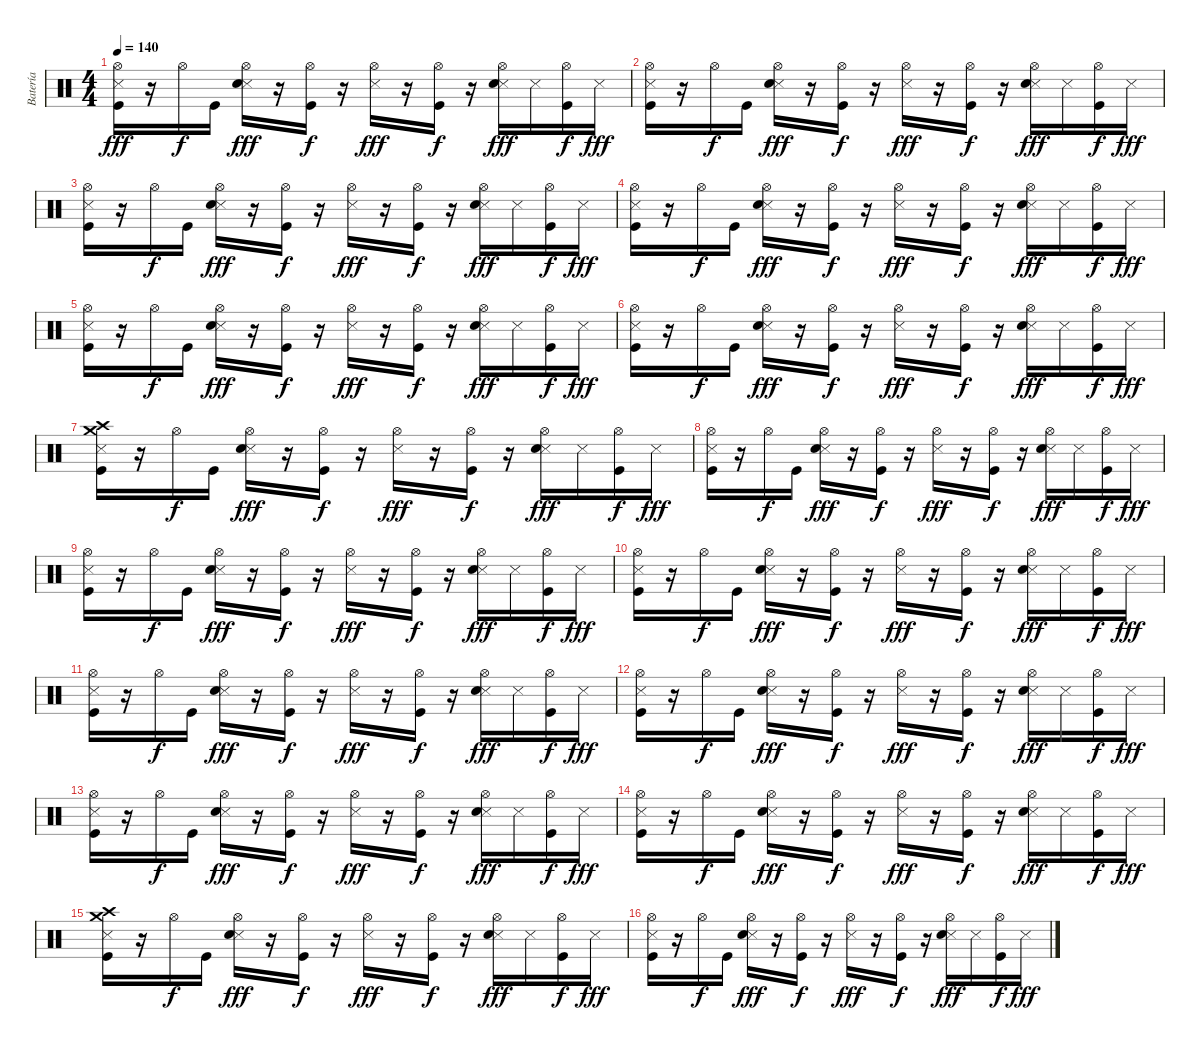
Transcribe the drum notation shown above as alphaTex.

\track ("Batería" "Batería") {instrument percussion}
\staff {score}
\articulation defaults
\ts (4 4)
\tempo 140
\clef neutral
\ks c
("Metronome (hit)" "Hi-Hat (open)" "Kick (hit)").16{dy fff} r.16 "Hi-Hat (open)".16{dy f} "Kick (hit)".16 ("Metronome (hit)" "Hi-Hat (open)" "Snare (hit) 2").16{dy fff} r.16 ("Hi-Hat (open)" "Kick (hit)").16{dy f} r.16 ("Metronome (hit)" "Hi-Hat (open)").16{dy fff} r.16 ("Hi-Hat (open)" "Kick (hit)").16{dy f} r.16 ("Metronome (hit)" "Hi-Hat (open)" "Snare (hit) 2").16{dy fff} "Metronome (hit)".16 ("Hi-Hat (open)" "Kick (hit)").16{dy f} "Metronome (hit)".16{dy fff} |
("Metronome (hit)" "Hi-Hat (open)" "Kick (hit)").16 r.16 "Hi-Hat (open)".16{dy f} "Kick (hit)".16 ("Metronome (hit)" "Hi-Hat (open)" "Snare (hit) 2").16{dy fff} r.16 ("Hi-Hat (open)" "Kick (hit)").16{dy f} r.16 ("Metronome (hit)" "Hi-Hat (open)").16{dy fff} r.16 ("Hi-Hat (open)" "Kick (hit)").16{dy f} r.16 ("Metronome (hit)" "Hi-Hat (open)" "Snare (hit) 2").16{dy fff} "Metronome (hit)".16 ("Hi-Hat (open)" "Kick (hit)").16{dy f} "Metronome (hit)".16{dy fff} |
("Metronome (hit)" "Hi-Hat (open)" "Kick (hit)").16 r.16 "Hi-Hat (open)".16{dy f} "Kick (hit)".16 ("Metronome (hit)" "Hi-Hat (open)" "Snare (hit) 2").16{dy fff} r.16 ("Hi-Hat (open)" "Kick (hit)").16{dy f} r.16 ("Metronome (hit)" "Hi-Hat (open)").16{dy fff} r.16 ("Hi-Hat (open)" "Kick (hit)").16{dy f} r.16 ("Metronome (hit)" "Hi-Hat (open)" "Snare (hit) 2").16{dy fff} "Metronome (hit)".16 ("Hi-Hat (open)" "Kick (hit)").16{dy f} "Metronome (hit)".16{dy fff} |
("Metronome (hit)" "Hi-Hat (open)" "Kick (hit)").16 r.16 "Hi-Hat (open)".16{dy f} "Kick (hit)".16 ("Metronome (hit)" "Hi-Hat (open)" "Snare (hit) 2").16{dy fff} r.16 ("Hi-Hat (open)" "Kick (hit)").16{dy f} r.16 ("Metronome (hit)" "Hi-Hat (open)").16{dy fff} r.16 ("Hi-Hat (open)" "Kick (hit)").16{dy f} r.16 ("Metronome (hit)" "Hi-Hat (open)" "Snare (hit) 2").16{dy fff} "Metronome (hit)".16 ("Hi-Hat (open)" "Kick (hit)").16{dy f} "Metronome (hit)".16{dy fff} |
("Metronome (hit)" "Hi-Hat (open)" "Kick (hit)").16 r.16 "Hi-Hat (open)".16{dy f} "Kick (hit)".16 ("Metronome (hit)" "Hi-Hat (open)" "Snare (hit) 2").16{dy fff} r.16 ("Hi-Hat (open)" "Kick (hit)").16{dy f} r.16 ("Metronome (hit)" "Hi-Hat (open)").16{dy fff} r.16 ("Hi-Hat (open)" "Kick (hit)").16{dy f} r.16 ("Metronome (hit)" "Hi-Hat (open)" "Snare (hit) 2").16{dy fff} "Metronome (hit)".16 ("Hi-Hat (open)" "Kick (hit)").16{dy f} "Metronome (hit)".16{dy fff} |
("Metronome (hit)" "Hi-Hat (open)" "Kick (hit)").16 r.16 "Hi-Hat (open)".16{dy f} "Kick (hit)".16 ("Metronome (hit)" "Hi-Hat (open)" "Snare (hit) 2").16{dy fff} r.16 ("Hi-Hat (open)" "Kick (hit)").16{dy f} r.16 ("Metronome (hit)" "Hi-Hat (open)").16{dy fff} r.16 ("Hi-Hat (open)" "Kick (hit)").16{dy f} r.16 ("Metronome (hit)" "Hi-Hat (open)" "Snare (hit) 2").16{dy fff} "Metronome (hit)".16 ("Hi-Hat (open)" "Kick (hit)").16{dy f} "Metronome (hit)".16{dy fff} |
("Metronome (hit)" "Crash medium (hit)" "Crash high (hit)" "Kick (hit)").16 r.16 "Hi-Hat (open)".16{dy f} "Kick (hit)".16 ("Metronome (hit)" "Hi-Hat (open)" "Snare (hit) 2").16{dy fff} r.16 ("Hi-Hat (open)" "Kick (hit)").16{dy f} r.16 ("Metronome (hit)" "Hi-Hat (open)").16{dy fff} r.16 ("Hi-Hat (open)" "Kick (hit)").16{dy f} r.16 ("Metronome (hit)" "Hi-Hat (open)" "Snare (hit) 2").16{dy fff} "Metronome (hit)".16 ("Hi-Hat (open)" "Kick (hit)").16{dy f} "Metronome (hit)".16{dy fff} |
("Metronome (hit)" "Hi-Hat (open)" "Kick (hit)").16 r.16 "Hi-Hat (open)".16{dy f} "Kick (hit)".16 ("Metronome (hit)" "Hi-Hat (open)" "Snare (hit) 2").16{dy fff} r.16 ("Hi-Hat (open)" "Kick (hit)").16{dy f} r.16 ("Metronome (hit)" "Hi-Hat (open)").16{dy fff} r.16 ("Hi-Hat (open)" "Kick (hit)").16{dy f} r.16 ("Metronome (hit)" "Hi-Hat (open)" "Snare (hit) 2").16{dy fff} "Metronome (hit)".16 ("Hi-Hat (open)" "Kick (hit)").16{dy f} "Metronome (hit)".16{dy fff} |
("Metronome (hit)" "Hi-Hat (open)" "Kick (hit)").16 r.16 "Hi-Hat (open)".16{dy f} "Kick (hit)".16 ("Metronome (hit)" "Hi-Hat (open)" "Snare (hit) 2").16{dy fff} r.16 ("Hi-Hat (open)" "Kick (hit)").16{dy f} r.16 ("Metronome (hit)" "Hi-Hat (open)").16{dy fff} r.16 ("Hi-Hat (open)" "Kick (hit)").16{dy f} r.16 ("Metronome (hit)" "Hi-Hat (open)" "Snare (hit) 2").16{dy fff} "Metronome (hit)".16 ("Hi-Hat (open)" "Kick (hit)").16{dy f} "Metronome (hit)".16{dy fff} |
("Metronome (hit)" "Hi-Hat (open)" "Kick (hit)").16 r.16 "Hi-Hat (open)".16{dy f} "Kick (hit)".16 ("Metronome (hit)" "Hi-Hat (open)" "Snare (hit) 2").16{dy fff} r.16 ("Hi-Hat (open)" "Kick (hit)").16{dy f} r.16 ("Metronome (hit)" "Hi-Hat (open)").16{dy fff} r.16 ("Hi-Hat (open)" "Kick (hit)").16{dy f} r.16 ("Metronome (hit)" "Hi-Hat (open)" "Snare (hit) 2").16{dy fff} "Metronome (hit)".16 ("Hi-Hat (open)" "Kick (hit)").16{dy f} "Metronome (hit)".16{dy fff} |
("Metronome (hit)" "Hi-Hat (open)" "Kick (hit)").16 r.16 "Hi-Hat (open)".16{dy f} "Kick (hit)".16 ("Metronome (hit)" "Hi-Hat (open)" "Snare (hit) 2").16{dy fff} r.16 ("Hi-Hat (open)" "Kick (hit)").16{dy f} r.16 ("Metronome (hit)" "Hi-Hat (open)").16{dy fff} r.16 ("Hi-Hat (open)" "Kick (hit)").16{dy f} r.16 ("Metronome (hit)" "Hi-Hat (open)" "Snare (hit) 2").16{dy fff} "Metronome (hit)".16 ("Hi-Hat (open)" "Kick (hit)").16{dy f} "Metronome (hit)".16{dy fff} |
("Metronome (hit)" "Hi-Hat (open)" "Kick (hit)").16 r.16 "Hi-Hat (open)".16{dy f} "Kick (hit)".16 ("Metronome (hit)" "Hi-Hat (open)" "Snare (hit) 2").16{dy fff} r.16 ("Hi-Hat (open)" "Kick (hit)").16{dy f} r.16 ("Metronome (hit)" "Hi-Hat (open)").16{dy fff} r.16 ("Hi-Hat (open)" "Kick (hit)").16{dy f} r.16 ("Metronome (hit)" "Hi-Hat (open)" "Snare (hit) 2").16{dy fff} "Metronome (hit)".16 ("Hi-Hat (open)" "Kick (hit)").16{dy f} "Metronome (hit)".16{dy fff} |
("Metronome (hit)" "Hi-Hat (open)" "Kick (hit)").16 r.16 "Hi-Hat (open)".16{dy f} "Kick (hit)".16 ("Metronome (hit)" "Hi-Hat (open)" "Snare (hit) 2").16{dy fff} r.16 ("Hi-Hat (open)" "Kick (hit)").16{dy f} r.16 ("Metronome (hit)" "Hi-Hat (open)").16{dy fff} r.16 ("Hi-Hat (open)" "Kick (hit)").16{dy f} r.16 ("Metronome (hit)" "Hi-Hat (open)" "Snare (hit) 2").16{dy fff} "Metronome (hit)".16 ("Hi-Hat (open)" "Kick (hit)").16{dy f} "Metronome (hit)".16{dy fff} |
("Metronome (hit)" "Hi-Hat (open)" "Kick (hit)").16 r.16 "Hi-Hat (open)".16{dy f} "Kick (hit)".16 ("Metronome (hit)" "Hi-Hat (open)" "Snare (hit) 2").16{dy fff} r.16 ("Hi-Hat (open)" "Kick (hit)").16{dy f} r.16 ("Metronome (hit)" "Hi-Hat (open)").16{dy fff} r.16 ("Hi-Hat (open)" "Kick (hit)").16{dy f} r.16 ("Metronome (hit)" "Hi-Hat (open)" "Snare (hit) 2").16{dy fff} "Metronome (hit)".16 ("Hi-Hat (open)" "Kick (hit)").16{dy f} "Metronome (hit)".16{dy fff} |
("Metronome (hit)" "Crash medium (hit)" "Crash high (hit)" "Kick (hit)").16 r.16 "Hi-Hat (open)".16{dy f} "Kick (hit)".16 ("Metronome (hit)" "Hi-Hat (open)" "Snare (hit) 2").16{dy fff} r.16 ("Hi-Hat (open)" "Kick (hit)").16{dy f} r.16 ("Metronome (hit)" "Hi-Hat (open)").16{dy fff} r.16 ("Hi-Hat (open)" "Kick (hit)").16{dy f} r.16 ("Metronome (hit)" "Hi-Hat (open)" "Snare (hit) 2").16{dy fff} "Metronome (hit)".16 ("Hi-Hat (open)" "Kick (hit)").16{dy f} "Metronome (hit)".16{dy fff} |
("Metronome (hit)" "Hi-Hat (open)" "Kick (hit)").16 r.16 "Hi-Hat (open)".16{dy f} "Kick (hit)".16 ("Metronome (hit)" "Hi-Hat (open)" "Snare (hit) 2").16{dy fff} r.16 ("Hi-Hat (open)" "Kick (hit)").16{dy f} r.16 ("Metronome (hit)" "Hi-Hat (open)").16{dy fff} r.16 ("Hi-Hat (open)" "Kick (hit)").16{dy f} r.16 ("Metronome (hit)" "Hi-Hat (open)" "Snare (hit) 2").16{dy fff} "Metronome (hit)".16 ("Hi-Hat (open)" "Kick (hit)").16{dy f} "Metronome (hit)".16{dy fff}
